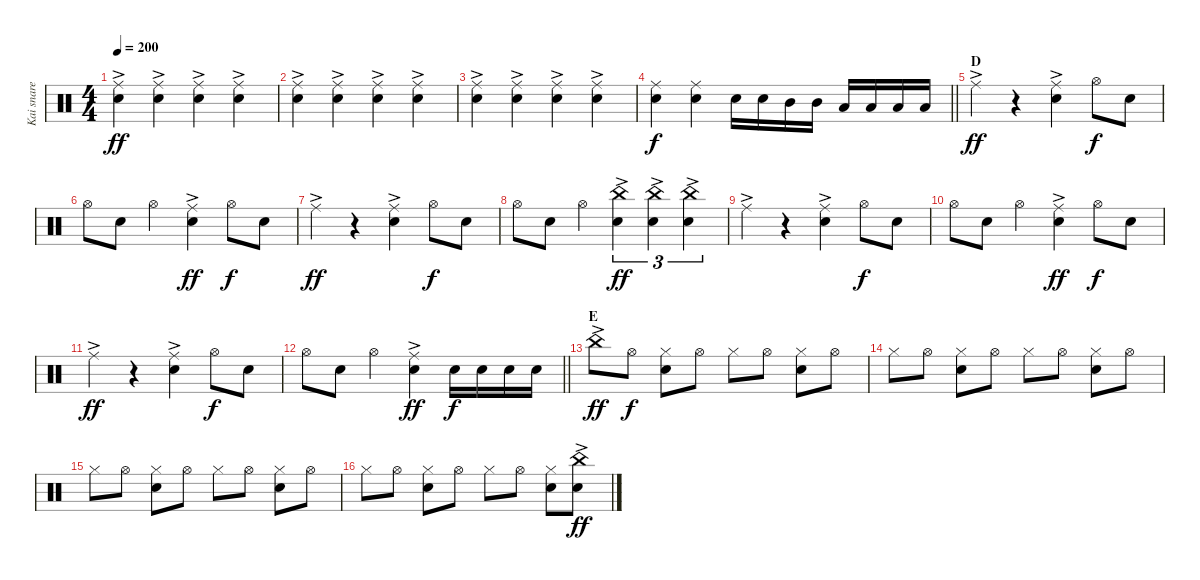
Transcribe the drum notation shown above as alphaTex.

\track ("Kai snare" "Kai snare") {instrument percussion}
\staff {score}
\articulation defaults
\ts (4 4)
\tempo 200
\clef neutral
\ks c
("Ride (middle)"{ac} "Snare (hit) 2").4{dy ff} ("Ride (middle)"{ac} "Snare (hit) 2").4 ("Ride (middle)"{ac} "Snare (hit) 2").4 ("Ride (middle)"{ac} "Snare (hit) 2").4 |
("Ride (middle)"{ac} "Snare (hit) 2").4 ("Ride (middle)"{ac} "Snare (hit) 2").4 ("Ride (middle)"{ac} "Snare (hit) 2").4 ("Ride (middle)"{ac} "Snare (hit) 2").4 |
("Ride (middle)"{ac} "Snare (hit) 2").4 ("Ride (middle)"{ac} "Snare (hit) 2").4 ("Ride (middle)"{ac} "Snare (hit) 2").4 ("Ride (middle)"{ac} "Snare (hit) 2").4 |
\barLineRight lightlight
("Ride (middle)" "Snare (hit) 2").4{dy f} ("Ride (middle)" "Snare (hit) 2").4 "Snare (hit) 2".16 "Snare (hit) 2".16 "Mid Tom (hit)".16 "Mid Tom (hit)".16 "Low Tom (hit)".16 "Low Tom (hit)".16 "Low Tom (hit)".16 "Low Tom (hit)".16 |
\section ("" "D")
"Ride (middle)"{ac}.4{dy ff} r.4 ("Ride (middle)"{ac} "Snare (hit) 2").4 "Hi-Hat (open)".8{dy f} "Snare (hit) 2".8 |
"Hi-Hat (open)".8 "Snare (hit) 2".8 "Hi-Hat (open)".4 ("Ride (middle)"{ac} "Snare (hit) 2").4{dy ff} "Hi-Hat (open)".8{dy f} "Snare (hit) 2".8 |
"Ride (middle)"{ac}.4{dy ff} r.4 ("Ride (middle)"{ac} "Snare (hit) 2").4 "Hi-Hat (open)".8{dy f} "Snare (hit) 2".8 |
"Hi-Hat (open)".8 "Snare (hit) 2".8 "Hi-Hat (open)".4 ("China (hit)"{ac} "Snare (hit) 2").4{tu (3 2) dy ff} ("China (hit)"{ac} "Snare (hit) 2").4{tu (3 2)} ("China (hit)"{ac} "Snare (hit) 2").4{tu (3 2)} |
"Ride (middle)"{ac}.4 r.4 ("Ride (middle)"{ac} "Snare (hit) 2").4 "Hi-Hat (open)".8{dy f} "Snare (hit) 2".8 |
"Hi-Hat (open)".8 "Snare (hit) 2".8 "Hi-Hat (open)".4 ("Ride (middle)"{ac} "Snare (hit) 2").4{dy ff} "Hi-Hat (open)".8{dy f} "Snare (hit) 2".8 |
"Ride (middle)"{ac}.4{dy ff} r.4 ("Ride (middle)"{ac} "Snare (hit) 2").4 "Hi-Hat (open)".8{dy f} "Snare (hit) 2".8 |
\barLineRight lightlight "Hi-Hat (open)".8 "Snare (hit) 2".8 "Hi-Hat (open)".4
("Ride (middle)"{ac} "Snare (hit) 2").4{dy ff} "Snare (hit) 2".16{dy f} "Snare (hit) 2".16 "Snare (hit) 2".16 "Snare (hit) 2".16 |
\section ("" "E")
"China (hit)"{ac}.8{dy ff} "Hi-Hat (open)".8{dy f} ("Hi-Hat (closed)" "Snare (hit) 2").8 "Hi-Hat (open)".8 "Hi-Hat (closed)".8 "Hi-Hat (open)".8 ("Hi-Hat (closed)" "Snare (hit) 2").8 "Hi-Hat (open)".8 |
"Hi-Hat (closed)".8 "Hi-Hat (open)".8 ("Hi-Hat (closed)" "Snare (hit) 2").8 "Hi-Hat (open)".8 "Hi-Hat (closed)".8 "Hi-Hat (open)".8 ("Hi-Hat (closed)" "Snare (hit) 2").8 "Hi-Hat (open)".8 |
"Hi-Hat (closed)".8 "Hi-Hat (open)".8 ("Hi-Hat (closed)" "Snare (hit) 2").8 "Hi-Hat (open)".8 "Hi-Hat (closed)".8 "Hi-Hat (open)".8 ("Hi-Hat (closed)" "Snare (hit) 2").8 "Hi-Hat (open)".8 |
"Hi-Hat (closed)".8 "Hi-Hat (open)".8 ("Hi-Hat (closed)" "Snare (hit) 2").8 "Hi-Hat (open)".8 "Hi-Hat (closed)".8 "Hi-Hat (open)".8 ("Hi-Hat (closed)" "Snare (hit) 2").8 ("China (hit)"{ac} "Snare (hit) 2").8{dy ff}
